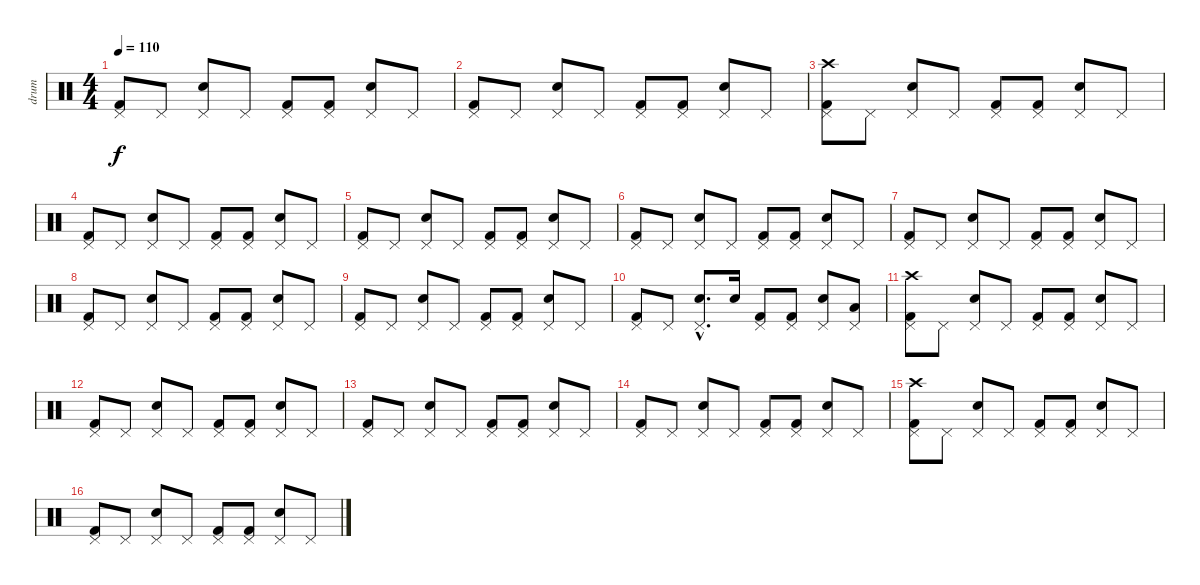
\track ("drum" "drum") {instrument percussion}
\staff {score}
\articulation defaults
\ts (4 4)
\tempo 110
\clef neutral
\ks c
("Pedal Hi-Hat (hit)" "Kick (hit) 2").8{dy f} "Pedal Hi-Hat (hit)".8 ("Pedal Hi-Hat (hit)" "Electric Snare (hit)").8 "Pedal Hi-Hat (hit)".8 ("Pedal Hi-Hat (hit)" "Kick (hit) 2").8 ("Pedal Hi-Hat (hit)" "Kick (hit) 2").8 ("Pedal Hi-Hat (hit)" "Electric Snare (hit)").8 "Pedal Hi-Hat (hit)".8 |
("Pedal Hi-Hat (hit)" "Kick (hit) 2").8 "Pedal Hi-Hat (hit)".8 ("Pedal Hi-Hat (hit)" "Electric Snare (hit)").8 "Pedal Hi-Hat (hit)".8 ("Pedal Hi-Hat (hit)" "Kick (hit) 2").8 ("Pedal Hi-Hat (hit)" "Kick (hit) 2").8 ("Pedal Hi-Hat (hit)" "Electric Snare (hit)").8 "Pedal Hi-Hat (hit)".8 |
("Pedal Hi-Hat (hit)" "Kick (hit) 2" "Crash high (hit)").8 "Pedal Hi-Hat (hit)".8 ("Pedal Hi-Hat (hit)" "Electric Snare (hit)").8 "Pedal Hi-Hat (hit)".8 ("Pedal Hi-Hat (hit)" "Kick (hit) 2").8 ("Pedal Hi-Hat (hit)" "Kick (hit) 2").8 ("Pedal Hi-Hat (hit)" "Electric Snare (hit)").8 "Pedal Hi-Hat (hit)".8 |
("Pedal Hi-Hat (hit)" "Kick (hit) 2").8 "Pedal Hi-Hat (hit)".8 ("Pedal Hi-Hat (hit)" "Electric Snare (hit)").8 "Pedal Hi-Hat (hit)".8 ("Pedal Hi-Hat (hit)" "Kick (hit) 2").8 ("Pedal Hi-Hat (hit)" "Kick (hit) 2").8 ("Pedal Hi-Hat (hit)" "Electric Snare (hit)").8 "Pedal Hi-Hat (hit)".8 |
("Pedal Hi-Hat (hit)" "Kick (hit) 2").8 "Pedal Hi-Hat (hit)".8 ("Pedal Hi-Hat (hit)" "Electric Snare (hit)").8 "Pedal Hi-Hat (hit)".8 ("Pedal Hi-Hat (hit)" "Kick (hit) 2").8 ("Pedal Hi-Hat (hit)" "Kick (hit) 2").8 ("Pedal Hi-Hat (hit)" "Electric Snare (hit)").8 "Pedal Hi-Hat (hit)".8 |
("Pedal Hi-Hat (hit)" "Kick (hit) 2").8 "Pedal Hi-Hat (hit)".8 ("Pedal Hi-Hat (hit)" "Electric Snare (hit)").8 "Pedal Hi-Hat (hit)".8 ("Pedal Hi-Hat (hit)" "Kick (hit) 2").8 ("Pedal Hi-Hat (hit)" "Kick (hit) 2").8 ("Pedal Hi-Hat (hit)" "Electric Snare (hit)").8 "Pedal Hi-Hat (hit)".8 |
("Pedal Hi-Hat (hit)" "Kick (hit) 2").8 "Pedal Hi-Hat (hit)".8 ("Pedal Hi-Hat (hit)" "Electric Snare (hit)").8 "Pedal Hi-Hat (hit)".8 ("Pedal Hi-Hat (hit)" "Kick (hit) 2").8 ("Pedal Hi-Hat (hit)" "Kick (hit) 2").8 ("Pedal Hi-Hat (hit)" "Electric Snare (hit)").8 "Pedal Hi-Hat (hit)".8 |
("Pedal Hi-Hat (hit)" "Kick (hit) 2").8 "Pedal Hi-Hat (hit)".8 ("Pedal Hi-Hat (hit)" "Electric Snare (hit)").8 "Pedal Hi-Hat (hit)".8 ("Pedal Hi-Hat (hit)" "Kick (hit) 2").8 ("Pedal Hi-Hat (hit)" "Kick (hit) 2").8 ("Pedal Hi-Hat (hit)" "Electric Snare (hit)").8 "Pedal Hi-Hat (hit)".8 |
("Pedal Hi-Hat (hit)" "Kick (hit) 2").8 "Pedal Hi-Hat (hit)".8 ("Pedal Hi-Hat (hit)" "Electric Snare (hit)").8 "Pedal Hi-Hat (hit)".8 ("Pedal Hi-Hat (hit)" "Kick (hit) 2").8 ("Pedal Hi-Hat (hit)" "Kick (hit) 2").8 ("Pedal Hi-Hat (hit)" "Electric Snare (hit)").8 "Pedal Hi-Hat (hit)".8 |
("Pedal Hi-Hat (hit)" "Kick (hit) 2").8 "Pedal Hi-Hat (hit)".8 ("Pedal Hi-Hat (hit)"{hac} "Electric Snare (hit)"{hac}).8{d} "Electric Snare (hit)".16 ("Pedal Hi-Hat (hit)" "Kick (hit) 2").8 ("Pedal Hi-Hat (hit)" "Kick (hit) 2").8 ("Pedal Hi-Hat (hit)" "Electric Snare (hit)").8 ("Pedal Hi-Hat (hit)" "Low Tom (hit)").8 |
("Pedal Hi-Hat (hit)" "Kick (hit) 2" "Crash high (hit)").8 "Pedal Hi-Hat (hit)".8 ("Pedal Hi-Hat (hit)" "Electric Snare (hit)").8 "Pedal Hi-Hat (hit)".8 ("Pedal Hi-Hat (hit)" "Kick (hit) 2").8 ("Pedal Hi-Hat (hit)" "Kick (hit) 2").8 ("Pedal Hi-Hat (hit)" "Electric Snare (hit)").8 "Pedal Hi-Hat (hit)".8 |
("Pedal Hi-Hat (hit)" "Kick (hit) 2").8 "Pedal Hi-Hat (hit)".8 ("Pedal Hi-Hat (hit)" "Electric Snare (hit)").8 "Pedal Hi-Hat (hit)".8 ("Pedal Hi-Hat (hit)" "Kick (hit) 2").8 ("Pedal Hi-Hat (hit)" "Kick (hit) 2").8 ("Pedal Hi-Hat (hit)" "Electric Snare (hit)").8 "Pedal Hi-Hat (hit)".8 |
("Pedal Hi-Hat (hit)" "Kick (hit) 2").8 "Pedal Hi-Hat (hit)".8 ("Pedal Hi-Hat (hit)" "Electric Snare (hit)").8 "Pedal Hi-Hat (hit)".8 ("Pedal Hi-Hat (hit)" "Kick (hit) 2").8 ("Pedal Hi-Hat (hit)" "Kick (hit) 2").8 ("Pedal Hi-Hat (hit)" "Electric Snare (hit)").8 "Pedal Hi-Hat (hit)".8 |
("Pedal Hi-Hat (hit)" "Kick (hit) 2").8 "Pedal Hi-Hat (hit)".8 ("Pedal Hi-Hat (hit)" "Electric Snare (hit)").8 "Pedal Hi-Hat (hit)".8 ("Pedal Hi-Hat (hit)" "Kick (hit) 2").8 ("Pedal Hi-Hat (hit)" "Kick (hit) 2").8 ("Pedal Hi-Hat (hit)" "Electric Snare (hit)").8 "Pedal Hi-Hat (hit)".8 |
("Pedal Hi-Hat (hit)" "Kick (hit) 2" "Crash high (hit)").8 "Pedal Hi-Hat (hit)".8 ("Pedal Hi-Hat (hit)" "Electric Snare (hit)").8 "Pedal Hi-Hat (hit)".8 ("Pedal Hi-Hat (hit)" "Kick (hit) 2").8 ("Pedal Hi-Hat (hit)" "Kick (hit) 2").8 ("Pedal Hi-Hat (hit)" "Electric Snare (hit)").8 "Pedal Hi-Hat (hit)".8 |
("Pedal Hi-Hat (hit)" "Kick (hit) 2").8 "Pedal Hi-Hat (hit)".8 ("Pedal Hi-Hat (hit)" "Electric Snare (hit)").8 "Pedal Hi-Hat (hit)".8 ("Pedal Hi-Hat (hit)" "Kick (hit) 2").8 ("Pedal Hi-Hat (hit)" "Kick (hit) 2").8 ("Pedal Hi-Hat (hit)" "Electric Snare (hit)").8 "Pedal Hi-Hat (hit)".8
